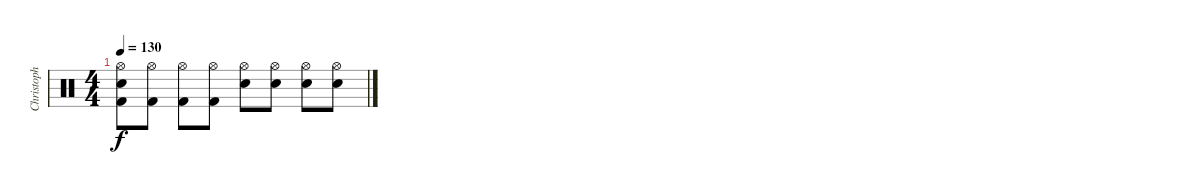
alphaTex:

\track ("Christoph \"Doom\" Schneider" "Christoph ") {instrument percussion}
\staff {score}
\articulation defaults
\ts (4 4)
\tempo 130
\clef neutral
\ks c
("Hi-Hat (open)" "Electric Snare (hit)" "Kick (hit) 2").8{dy f} ("Hi-Hat (open)" "Kick (hit) 2").8 ("Hi-Hat (open)" "Kick (hit) 2").8 ("Hi-Hat (open)" "Kick (hit) 2").8 ("Hi-Hat (open)" "Electric Snare (hit)").8 ("Hi-Hat (open)" "Electric Snare (hit)").8 ("Hi-Hat (open)" "Electric Snare (hit)").8 ("Hi-Hat (open)" "Electric Snare (hit)").8
